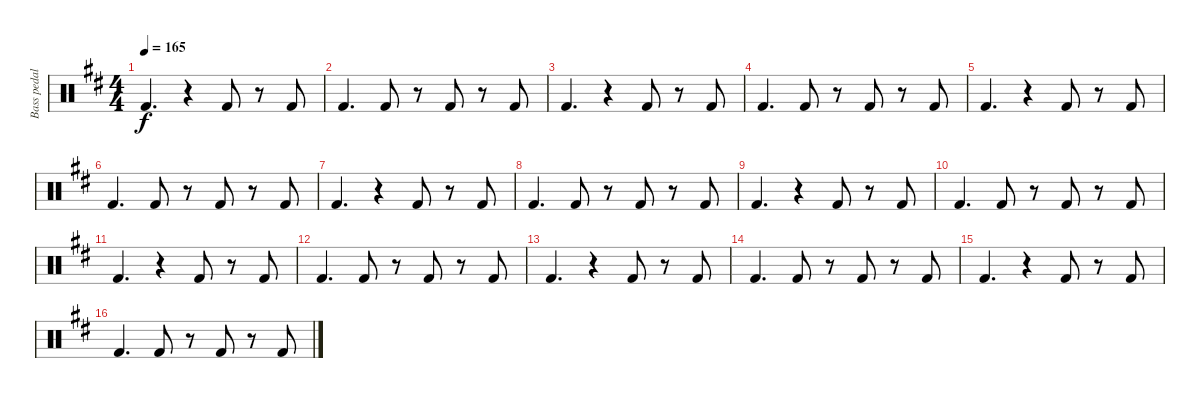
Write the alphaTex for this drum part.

\track ("Bass pedal" "Bass pedal") {instrument percussion}
\staff {score}
\articulation defaults
\ts (4 4)
\tempo 165
\clef neutral
\ks d "Kick (hit) 2".4{d dy f}
r.4 "Kick (hit) 2".8 r.8 "Kick (hit) 2".8 |
"Kick (hit) 2".4{d} "Kick (hit) 2".8 r.8 "Kick (hit) 2".8 r.8 "Kick (hit) 2".8 |
"Kick (hit) 2".4{d} r.4 "Kick (hit) 2".8 r.8 "Kick (hit) 2".8 |
"Kick (hit) 2".4{d} "Kick (hit) 2".8 r.8 "Kick (hit) 2".8 r.8 "Kick (hit) 2".8 |
"Kick (hit) 2".4{d} r.4 "Kick (hit) 2".8 r.8 "Kick (hit) 2".8 |
"Kick (hit) 2".4{d} "Kick (hit) 2".8 r.8 "Kick (hit) 2".8 r.8 "Kick (hit) 2".8 |
"Kick (hit) 2".4{d} r.4 "Kick (hit) 2".8 r.8 "Kick (hit) 2".8 |
"Kick (hit) 2".4{d} "Kick (hit) 2".8 r.8 "Kick (hit) 2".8 r.8 "Kick (hit) 2".8 |
"Kick (hit) 2".4{d} r.4 "Kick (hit) 2".8 r.8 "Kick (hit) 2".8 |
"Kick (hit) 2".4{d} "Kick (hit) 2".8 r.8 "Kick (hit) 2".8 r.8 "Kick (hit) 2".8 |
"Kick (hit) 2".4{d} r.4 "Kick (hit) 2".8 r.8 "Kick (hit) 2".8 |
"Kick (hit) 2".4{d} "Kick (hit) 2".8 r.8 "Kick (hit) 2".8 r.8 "Kick (hit) 2".8 |
"Kick (hit) 2".4{d} r.4 "Kick (hit) 2".8 r.8 "Kick (hit) 2".8 |
"Kick (hit) 2".4{d} "Kick (hit) 2".8 r.8 "Kick (hit) 2".8 r.8 "Kick (hit) 2".8 |
"Kick (hit) 2".4{d} r.4 "Kick (hit) 2".8 r.8 "Kick (hit) 2".8 |
"Kick (hit) 2".4{d} "Kick (hit) 2".8 r.8 "Kick (hit) 2".8 r.8 "Kick (hit) 2".8
